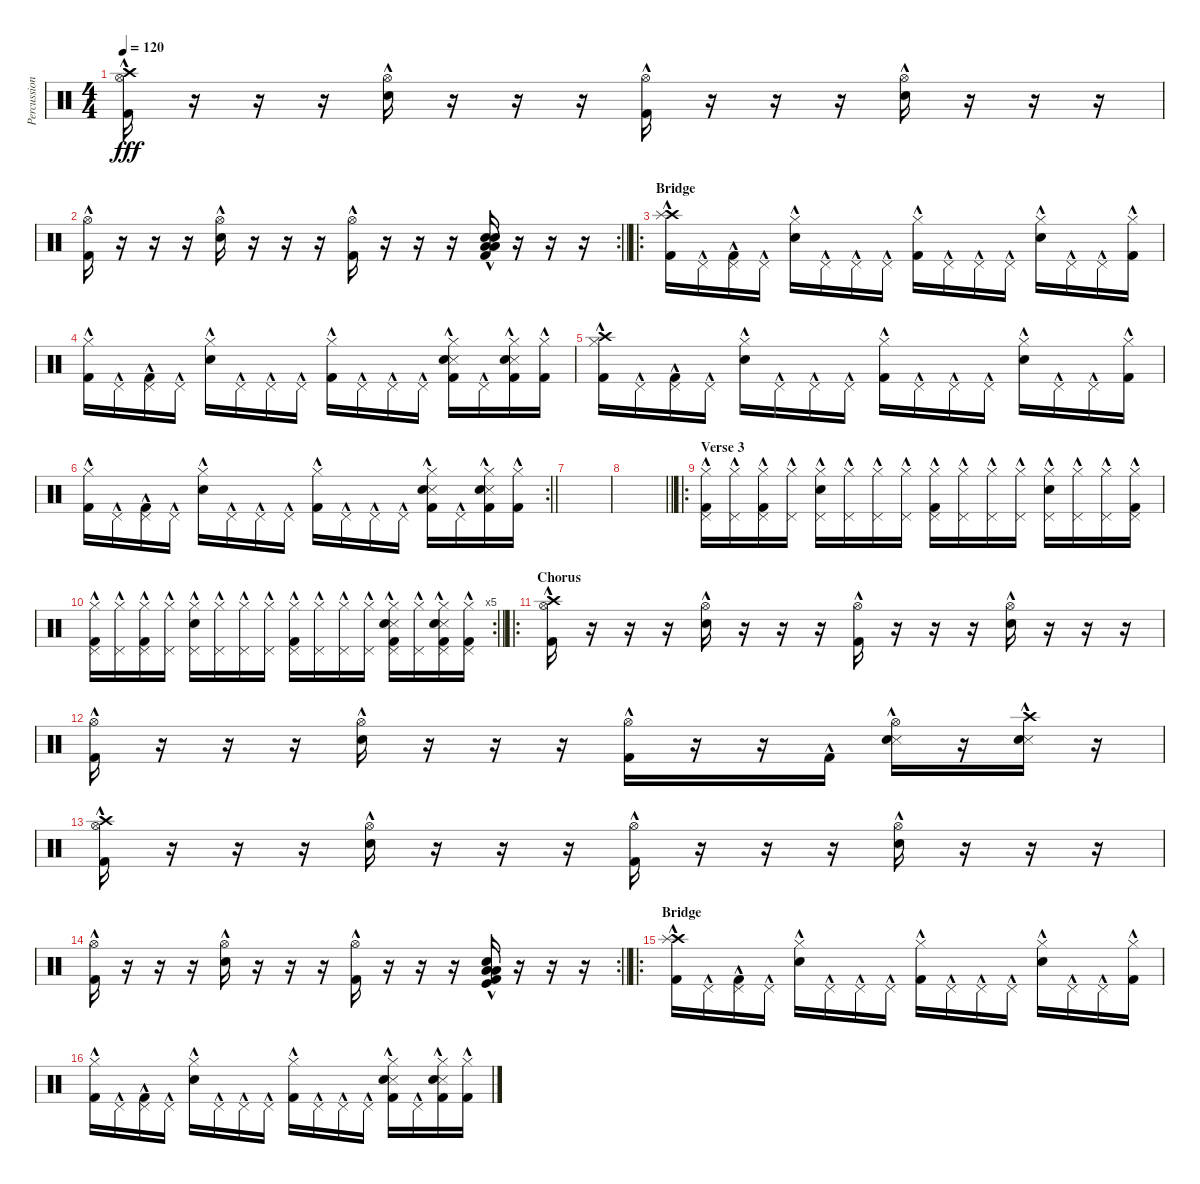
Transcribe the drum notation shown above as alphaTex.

\track ("Percussion" "Percussion") {instrument percussion}
\staff {score}
\articulation defaults
\ts (4 4)
\tempo 120
\clef neutral
\ks c
("Crash high (hit)"{hac} "Hi-Hat (open)"{hac} "Kick (hit) 2"{hac}).16{dy fff} r.16 r.16 r.16 ("Hi-Hat (open)"{hac} "Electric Snare (hit)"{hac}).16 r.16 r.16 r.16 ("Hi-Hat (open)"{hac} "Kick (hit) 2"{hac}).16 r.16 r.16 r.16 ("Hi-Hat (open)"{hac} "Electric Snare (hit)"{hac}).16 r.16 r.16 r.16 |
\rc 2
\barLineRight lightlight
("Hi-Hat (open)"{hac} "Kick (hit) 2"{hac}).16 r.16 r.16 r.16 ("Hi-Hat (open)"{hac} "Electric Snare (hit)"{hac}).16 r.16 r.16 r.16 ("Hi-Hat (open)"{hac} "Kick (hit) 2"{hac}).16 r.16 r.16 r.16 ("Snare (hit) 2"{hac} "Low Tom (hit)"{hac} "Low Floor Tom (hit)"{hac} "Electric Snare (hit)"{hac} "Kick (hit) 2"{hac}).16 r.16 r.16 r.16 |
\ro
\section ("" "Bridge")
("Crash high (hit)"{hac} "Splash (hit)"{hac} "Kick (hit) 2"{hac}).16 "Pedal Hi-Hat (hit)"{hac}.16 ("Pedal Hi-Hat (hit)"{hac} "Kick (hit) 2"{hac}).16 "Pedal Hi-Hat (hit)"{hac}.16 ("Hi-Hat (closed)"{hac} "Electric Snare (hit)"{hac}).16 "Pedal Hi-Hat (hit)"{hac}.16 "Pedal Hi-Hat (hit)"{hac}.16 "Pedal Hi-Hat (hit)"{hac}.16 ("Hi-Hat (closed)"{hac} "Kick (hit) 2"{hac}).16 "Pedal Hi-Hat (hit)"{hac}.16 "Pedal Hi-Hat (hit)"{hac}.16 "Pedal Hi-Hat (hit)"{hac}.16 ("Hi-Hat (closed)"{hac} "Electric Snare (hit)"{hac}).16 "Pedal Hi-Hat (hit)"{hac}.16 "Pedal Hi-Hat (hit)"{hac}.16 ("Hi-Hat (closed)"{hac} "Kick (hit) 2"{hac}).16 |
("Hi-Hat (closed)"{hac} "Kick (hit) 2"{hac}).16 "Pedal Hi-Hat (hit)"{hac}.16 ("Pedal Hi-Hat (hit)"{hac} "Kick (hit) 2"{hac}).16 "Pedal Hi-Hat (hit)"{hac}.16 ("Hi-Hat (closed)"{hac} "Electric Snare (hit)"{hac}).16 "Pedal Hi-Hat (hit)"{hac}.16 "Pedal Hi-Hat (hit)"{hac}.16 "Pedal Hi-Hat (hit)"{hac}.16 ("Hi-Hat (closed)"{hac} "Kick (hit) 2"{hac}).16 "Pedal Hi-Hat (hit)"{hac}.16 "Pedal Hi-Hat (hit)"{hac}.16 "Pedal Hi-Hat (hit)"{hac}.16 ("Snare (side stick) 3"{hac} "Hi-Hat (closed)"{hac} "Electric Snare (hit)"{hac} "Kick (hit) 2"{hac}).16 "Pedal Hi-Hat (hit)"{hac}.16 ("Snare (side stick) 3"{hac} "Hi-Hat (closed)"{hac} "Electric Snare (hit)"{hac} "Kick (hit) 2"{hac}).16 ("Hi-Hat (closed)"{hac} "Kick (hit) 2"{hac}).16 |
("Crash high (hit)"{hac} "Hi-Hat (closed)"{hac} "Kick (hit) 2"{hac}).16 "Pedal Hi-Hat (hit)"{hac}.16 ("Pedal Hi-Hat (hit)"{hac} "Kick (hit) 2"{hac}).16 "Pedal Hi-Hat (hit)"{hac}.16 ("Hi-Hat (closed)"{hac} "Electric Snare (hit)"{hac}).16 "Pedal Hi-Hat (hit)"{hac}.16 "Pedal Hi-Hat (hit)"{hac}.16 "Pedal Hi-Hat (hit)"{hac}.16 ("Hi-Hat (closed)"{hac} "Kick (hit) 2"{hac}).16 "Pedal Hi-Hat (hit)"{hac}.16 "Pedal Hi-Hat (hit)"{hac}.16 "Pedal Hi-Hat (hit)"{hac}.16 ("Hi-Hat (closed)"{hac} "Electric Snare (hit)"{hac}).16 "Pedal Hi-Hat (hit)"{hac}.16 "Pedal Hi-Hat (hit)"{hac}.16 ("Hi-Hat (closed)"{hac} "Kick (hit) 2"{hac}).16 |
\rc 2
\barLineRight lightlight
("Hi-Hat (closed)"{hac} "Kick (hit) 2"{hac}).16 "Pedal Hi-Hat (hit)"{hac}.16 ("Pedal Hi-Hat (hit)"{hac} "Kick (hit) 2"{hac}).16 "Pedal Hi-Hat (hit)"{hac}.16 ("Hi-Hat (closed)"{hac} "Electric Snare (hit)"{hac}).16 "Pedal Hi-Hat (hit)"{hac}.16 "Pedal Hi-Hat (hit)"{hac}.16 "Pedal Hi-Hat (hit)"{hac}.16 ("Hi-Hat (closed)"{hac} "Kick (hit) 2"{hac}).16 "Pedal Hi-Hat (hit)"{hac}.16 "Pedal Hi-Hat (hit)"{hac}.16 "Pedal Hi-Hat (hit)"{hac}.16 ("Snare (side stick) 3"{hac} "Hi-Hat (closed)"{hac} "Electric Snare (hit)"{hac} "Kick (hit) 2"{hac}).16 "Pedal Hi-Hat (hit)"{hac}.16 ("Snare (side stick) 3"{hac} "Hi-Hat (closed)"{hac} "Electric Snare (hit)"{hac} "Kick (hit) 2"{hac}).16 ("Hi-Hat (closed)"{hac} "Kick (hit) 2"{hac}).16 |
\section ("" "")
|
\barLineRight lightlight
|
\ro
\section ("" "Verse 3")
("Hi-Hat (closed)"{hac} "Pedal Hi-Hat (hit)"{hac} "Kick (hit) 2"{hac}).16 ("Hi-Hat (closed)"{hac} "Pedal Hi-Hat (hit)"{hac}).16 ("Hi-Hat (closed)"{hac} "Pedal Hi-Hat (hit)"{hac} "Kick (hit) 2"{hac}).16 ("Hi-Hat (closed)"{hac} "Pedal Hi-Hat (hit)"{hac}).16 ("Hi-Hat (closed)"{hac} "Pedal Hi-Hat (hit)"{hac} "Electric Snare (hit)"{hac}).16 ("Hi-Hat (closed)"{hac} "Pedal Hi-Hat (hit)"{hac}).16 ("Hi-Hat (closed)"{hac} "Pedal Hi-Hat (hit)"{hac}).16 ("Hi-Hat (closed)"{hac} "Pedal Hi-Hat (hit)"{hac}).16 ("Hi-Hat (closed)"{hac} "Pedal Hi-Hat (hit)"{hac} "Kick (hit) 2"{hac}).16 ("Hi-Hat (closed)"{hac} "Pedal Hi-Hat (hit)"{hac}).16 ("Hi-Hat (closed)"{hac} "Pedal Hi-Hat (hit)"{hac}).16 ("Hi-Hat (closed)"{hac} "Pedal Hi-Hat (hit)"{hac}).16 ("Hi-Hat (closed)"{hac} "Pedal Hi-Hat (hit)"{hac} "Electric Snare (hit)"{hac}).16 ("Hi-Hat (closed)"{hac} "Pedal Hi-Hat (hit)"{hac}).16 ("Hi-Hat (closed)"{hac} "Pedal Hi-Hat (hit)"{hac}).16 ("Hi-Hat (closed)"{hac} "Pedal Hi-Hat (hit)"{hac} "Kick (hit) 2"{hac}).16 |
\rc 5
\barLineRight lightlight
("Hi-Hat (closed)"{hac} "Pedal Hi-Hat (hit)"{hac} "Kick (hit) 2"{hac}).16 ("Hi-Hat (closed)"{hac} "Pedal Hi-Hat (hit)"{hac}).16 ("Hi-Hat (closed)"{hac} "Pedal Hi-Hat (hit)"{hac} "Kick (hit) 2"{hac}).16 ("Hi-Hat (closed)"{hac} "Pedal Hi-Hat (hit)"{hac}).16 ("Hi-Hat (closed)"{hac} "Pedal Hi-Hat (hit)"{hac} "Electric Snare (hit)"{hac}).16 ("Hi-Hat (closed)"{hac} "Pedal Hi-Hat (hit)"{hac}).16 ("Hi-Hat (closed)"{hac} "Pedal Hi-Hat (hit)"{hac}).16 ("Hi-Hat (closed)"{hac} "Pedal Hi-Hat (hit)"{hac}).16 ("Hi-Hat (closed)"{hac} "Pedal Hi-Hat (hit)"{hac} "Kick (hit) 2"{hac}).16 ("Hi-Hat (closed)"{hac} "Pedal Hi-Hat (hit)"{hac}).16 ("Hi-Hat (closed)"{hac} "Pedal Hi-Hat (hit)"{hac}).16 ("Hi-Hat (closed)"{hac} "Pedal Hi-Hat (hit)"{hac}).16 ("Snare (side stick) 3"{hac} "Hi-Hat (closed)"{hac} "Pedal Hi-Hat (hit)"{hac} "Electric Snare (hit)"{hac} "Kick (hit) 2"{hac}).16 ("Hi-Hat (closed)"{hac} "Pedal Hi-Hat (hit)"{hac}).16 ("Snare (side stick) 3"{hac} "Hi-Hat (closed)"{hac} "Pedal Hi-Hat (hit)"{hac} "Electric Snare (hit)"{hac} "Kick (hit) 2"{hac}).16 ("Hi-Hat (closed)"{hac} "Pedal Hi-Hat (hit)"{hac} "Kick (hit) 2"{hac}).16 |
\ro
\section ("" "Chorus")
("Crash high (hit)"{hac} "Hi-Hat (open)"{hac} "Kick (hit) 2"{hac}).16 r.16 r.16 r.16 ("Hi-Hat (open)"{hac} "Snare (hit) 2"{hac}).16 r.16 r.16 r.16 ("Hi-Hat (open)"{hac} "Kick (hit) 2"{hac}).16 r.16 r.16 r.16 ("Hi-Hat (open)"{hac} "Snare (hit) 2"{hac}).16 r.16 r.16 r.16 |
("Hi-Hat (open)"{hac} "Kick (hit) 2"{hac}).16 r.16 r.16 r.16 ("Hi-Hat (open)"{hac} "Snare (hit) 2"{hac}).16 r.16 r.16 r.16 ("Hi-Hat (open)"{hac} "Kick (hit) 2"{hac}).16 r.16 r.16 "Kick (hit) 2"{hac}.16 ("Snare (side stick) 3"{hac} "Hi-Hat (open)"{hac} "Snare (hit) 2"{hac}).16 r.16 ("Snare (side stick) 3"{hac} "Crash high (hit)"{hac} "Snare (hit) 2"{hac}).16 r.16 |
("Crash high (hit)"{hac} "Hi-Hat (open)"{hac} "Kick (hit) 2"{hac}).16 r.16 r.16 r.16 ("Hi-Hat (open)"{hac} "Snare (hit) 2"{hac}).16 r.16 r.16 r.16 ("Hi-Hat (open)"{hac} "Kick (hit) 2"{hac}).16 r.16 r.16 r.16 ("Hi-Hat (open)"{hac} "Snare (hit) 2"{hac}).16 r.16 r.16 r.16 |
\rc 2
\barLineRight lightlight
("Hi-Hat (open)"{hac} "Kick (hit) 2"{hac}).16 r.16 r.16 r.16 ("Hi-Hat (open)"{hac} "Snare (hit) 2"{hac}).16 r.16 r.16 r.16 ("Hi-Hat (open)"{hac} "Kick (hit) 2"{hac}).16 r.16 r.16 r.16 ("Snare (hit) 2"{hac} "Low Tom (hit)"{hac} "Low Floor Tom (hit)"{hac} "Kick (hit)"{hac} "Kick (hit) 2"{hac}).16 r.16 r.16 r.16 |
\ro
\section ("" "Bridge")
("Crash high (hit)"{hac} "Splash (hit)"{hac} "Kick (hit) 2"{hac}).16 "Pedal Hi-Hat (hit)"{hac}.16 ("Pedal Hi-Hat (hit)"{hac} "Kick (hit) 2"{hac}).16 "Pedal Hi-Hat (hit)"{hac}.16 ("Hi-Hat (closed)"{hac} "Electric Snare (hit)"{hac}).16 "Pedal Hi-Hat (hit)"{hac}.16 "Pedal Hi-Hat (hit)"{hac}.16 "Pedal Hi-Hat (hit)"{hac}.16 ("Hi-Hat (closed)"{hac} "Kick (hit) 2"{hac}).16 "Pedal Hi-Hat (hit)"{hac}.16 "Pedal Hi-Hat (hit)"{hac}.16 "Pedal Hi-Hat (hit)"{hac}.16 ("Hi-Hat (closed)"{hac} "Electric Snare (hit)"{hac}).16 "Pedal Hi-Hat (hit)"{hac}.16 "Pedal Hi-Hat (hit)"{hac}.16 ("Hi-Hat (closed)"{hac} "Kick (hit) 2"{hac}).16 |
("Hi-Hat (closed)"{hac} "Kick (hit) 2"{hac}).16 "Pedal Hi-Hat (hit)"{hac}.16 ("Pedal Hi-Hat (hit)"{hac} "Kick (hit) 2"{hac}).16 "Pedal Hi-Hat (hit)"{hac}.16 ("Hi-Hat (closed)"{hac} "Electric Snare (hit)"{hac}).16 "Pedal Hi-Hat (hit)"{hac}.16 "Pedal Hi-Hat (hit)"{hac}.16 "Pedal Hi-Hat (hit)"{hac}.16 ("Hi-Hat (closed)"{hac} "Kick (hit) 2"{hac}).16 "Pedal Hi-Hat (hit)"{hac}.16 "Pedal Hi-Hat (hit)"{hac}.16 "Pedal Hi-Hat (hit)"{hac}.16 ("Snare (side stick) 3"{hac} "Hi-Hat (closed)"{hac} "Electric Snare (hit)"{hac} "Kick (hit) 2"{hac}).16 "Pedal Hi-Hat (hit)"{hac}.16 ("Snare (side stick) 3"{hac} "Hi-Hat (closed)"{hac} "Electric Snare (hit)"{hac} "Kick (hit) 2"{hac}).16 ("Hi-Hat (closed)"{hac} "Kick (hit) 2"{hac}).16
